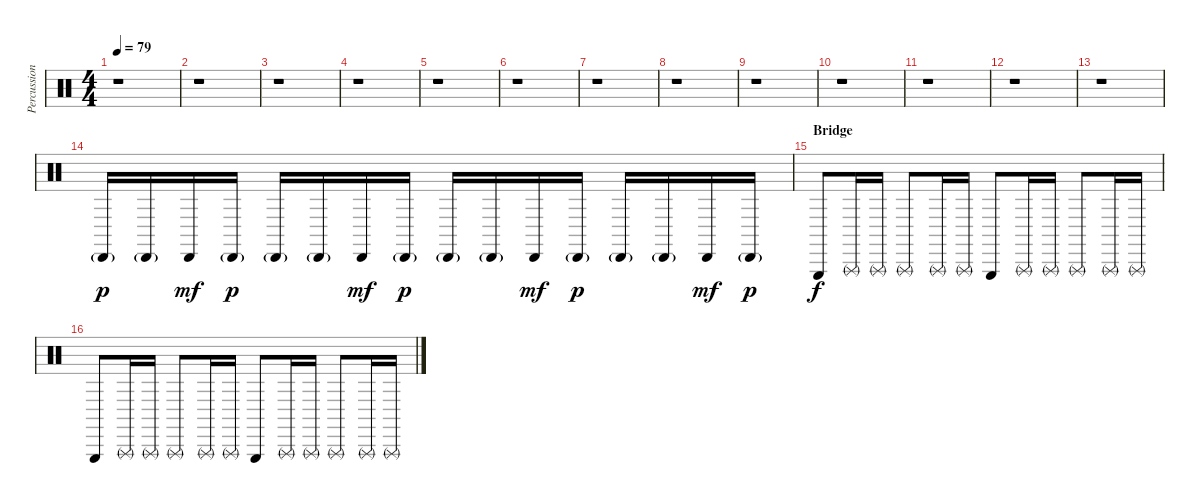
\track ("Percussion Overdubs" "Percussion") {instrument percussion}
\staff {score}
\articulation defaults
\ts (4 4)
\tempo 79
\clef neutral
\ks c
r.1{dy p} |
r.1 |
r.1 |
r.1 |
r.1 |
r.1 |
r.1 |
r.1 |
r.1 |
r.1 |
r.1 |
r.1 |
r.1 |
"Cabasa (hit)"{g}.16 "Cabasa (hit)"{g}.16 "Cabasa (hit)".16{dy mf} "Cabasa (hit)"{g}.16{dy p} "Cabasa (hit)"{g}.16 "Cabasa (hit)"{g}.16 "Cabasa (hit)".16{dy mf} "Cabasa (hit)"{g}.16{dy p} "Cabasa (hit)"{g}.16 "Cabasa (hit)"{g}.16 "Cabasa (hit)".16{dy mf} "Cabasa (hit)"{g}.16{dy p} "Cabasa (hit)"{g}.16 "Cabasa (hit)"{g}.16 "Cabasa (hit)".16{dy mf} "Cabasa (hit)"{g}.16{dy p} |
\section ("" "Bridge")
"Triangle (hit)".8{dy f} "Triangle (rnute)".16 "Triangle (rnute)".16 "Triangle (rnute)".8 "Triangle (rnute)".16 "Triangle (rnute)".16 "Triangle (hit)".8 "Triangle (rnute)".16 "Triangle (rnute)".16 "Triangle (rnute)".8 "Triangle (rnute)".16 "Triangle (rnute)".16 |
"Triangle (hit)".8 "Triangle (rnute)".16 "Triangle (rnute)".16 "Triangle (rnute)".8 "Triangle (rnute)".16 "Triangle (rnute)".16 "Triangle (hit)".8 "Triangle (rnute)".16 "Triangle (rnute)".16 "Triangle (rnute)".8 "Triangle (rnute)".16 "Triangle (rnute)".16
